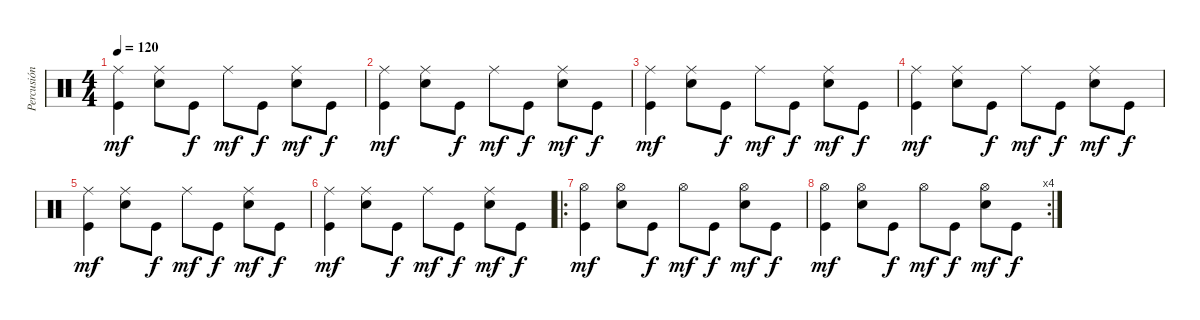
\track ("Percusión" "Percusión") {instrument percussion}
\staff {score}
\articulation defaults
\ts (4 4)
\tempo 120
\clef neutral
\ks c
("Kick (hit)" "Ride (middle)").4{dy mf} ("Electric Snare (hit)" "Ride (middle)").8 "Kick (hit)".8{dy f} "Ride (middle)".8{dy mf} "Kick (hit)".8{dy f} ("Electric Snare (hit)" "Ride (middle)").8{dy mf} "Kick (hit)".8{dy f} |
("Kick (hit)" "Ride (middle)").4{dy mf} ("Electric Snare (hit)" "Ride (middle)").8 "Kick (hit)".8{dy f} "Ride (middle)".8{dy mf} "Kick (hit)".8{dy f} ("Electric Snare (hit)" "Ride (middle)").8{dy mf} "Kick (hit)".8{dy f} |
("Kick (hit)" "Ride (middle)").4{dy mf} ("Electric Snare (hit)" "Ride (middle)").8 "Kick (hit)".8{dy f} "Ride (middle)".8{dy mf} "Kick (hit)".8{dy f} ("Electric Snare (hit)" "Ride (middle)").8{dy mf} "Kick (hit)".8{dy f} |
("Kick (hit)" "Ride (middle)").4{dy mf} ("Electric Snare (hit)" "Ride (middle)").8 "Kick (hit)".8{dy f} "Ride (middle)".8{dy mf} "Kick (hit)".8{dy f} ("Electric Snare (hit)" "Ride (middle)").8{dy mf} "Kick (hit)".8{dy f} |
("Kick (hit)" "Ride (middle)").4{dy mf} ("Electric Snare (hit)" "Ride (middle)").8 "Kick (hit)".8{dy f} "Ride (middle)".8{dy mf} "Kick (hit)".8{dy f} ("Electric Snare (hit)" "Ride (middle)").8{dy mf} "Kick (hit)".8{dy f} |
("Kick (hit)" "Ride (middle)").4{dy mf} ("Electric Snare (hit)" "Ride (middle)").8 "Kick (hit)".8{dy f} "Ride (middle)".8{dy mf} "Kick (hit)".8{dy f} ("Electric Snare (hit)" "Ride (middle)").8{dy mf} "Kick (hit)".8{dy f} |
\ro
("Kick (hit)" "Hi-Hat (open)").4{dy mf} ("Electric Snare (hit)" "Hi-Hat (open)").8 "Kick (hit)".8{dy f} "Hi-Hat (open)".8{dy mf} "Kick (hit)".8{dy f} ("Electric Snare (hit)" "Hi-Hat (open)").8{dy mf} "Kick (hit)".8{dy f} |
\rc 4
("Kick (hit)" "Hi-Hat (open)").4{dy mf} ("Electric Snare (hit)" "Hi-Hat (open)").8 "Kick (hit)".8{dy f} "Hi-Hat (open)".8{dy mf} "Kick (hit)".8{dy f} ("Electric Snare (hit)" "Hi-Hat (open)").8{dy mf} "Kick (hit)".8{dy f}
